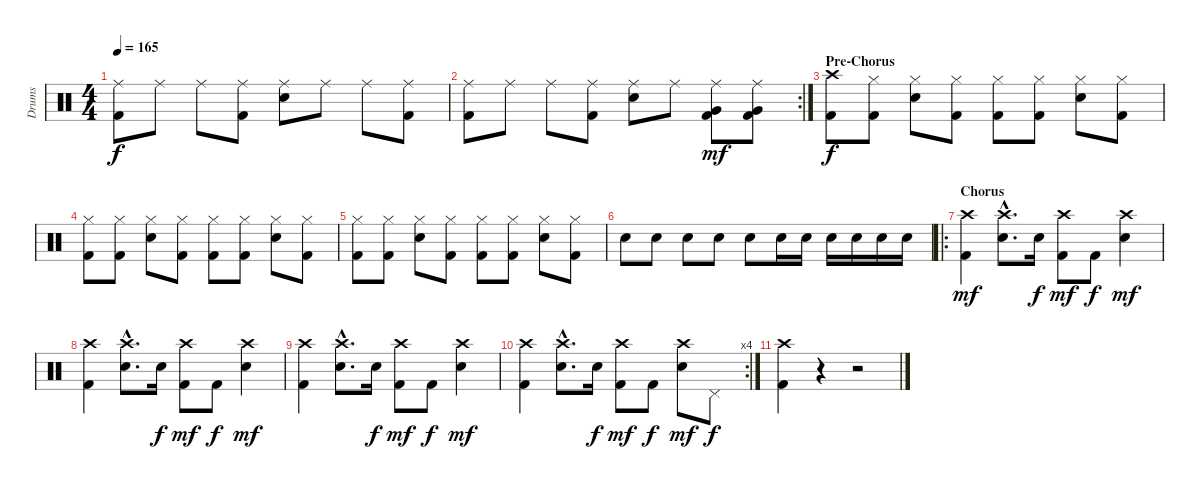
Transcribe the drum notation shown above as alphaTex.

\track ("Drums" "Drums") {instrument percussion}
\staff {score}
\articulation defaults
\ts (4 4)
\tempo 165
\clef neutral
\ks c
("Ride (middle)" "Kick (hit) 2").8{dy f} "Ride (middle)".8 "Ride (middle)".8 ("Ride (middle)" "Kick (hit) 2").8 ("Ride (middle)" "Electric Snare (hit)").8 "Ride (middle)".8 "Ride (middle)".8 ("Ride (middle)" "Kick (hit) 2").8 |
\rc 2
("Ride (middle)" "Kick (hit) 2").8 "Ride (middle)".8 "Ride (middle)".8 ("Ride (middle)" "Kick (hit) 2").8 ("Ride (middle)" "Electric Snare (hit)").8 "Ride (middle)".8 ("Ride (middle)" "Very Low Tom (hit)" "Kick (hit) 2").8{dy mf} ("Ride (middle)" "Very Low Tom (hit)" "Kick (hit) 2").8 |
\section ("" "Pre-Chorus")
("Crash high (hit)" "Kick (hit) 2").8{dy f} ("Hi-Hat (closed)" "Kick (hit) 2").8 ("Hi-Hat (closed)" "Electric Snare (hit)").8 ("Hi-Hat (closed)" "Kick (hit) 2").8 ("Hi-Hat (closed)" "Kick (hit) 2").8 ("Hi-Hat (closed)" "Kick (hit) 2").8 ("Hi-Hat (closed)" "Electric Snare (hit)").8 ("Hi-Hat (closed)" "Kick (hit) 2").8 |
("Hi-Hat (closed)" "Kick (hit) 2").8 ("Hi-Hat (closed)" "Kick (hit) 2").8 ("Hi-Hat (closed)" "Electric Snare (hit)").8 ("Hi-Hat (closed)" "Kick (hit) 2").8 ("Hi-Hat (closed)" "Kick (hit) 2").8 ("Hi-Hat (closed)" "Kick (hit) 2").8 ("Hi-Hat (closed)" "Electric Snare (hit)").8 ("Hi-Hat (closed)" "Kick (hit) 2").8 |
("Hi-Hat (closed)" "Kick (hit) 2").8 ("Hi-Hat (closed)" "Kick (hit) 2").8 ("Hi-Hat (closed)" "Electric Snare (hit)").8 ("Hi-Hat (closed)" "Kick (hit) 2").8 ("Hi-Hat (closed)" "Kick (hit) 2").8 ("Hi-Hat (closed)" "Kick (hit) 2").8 ("Hi-Hat (closed)" "Electric Snare (hit)").8 ("Hi-Hat (closed)" "Kick (hit) 2").8 |
"Electric Snare (hit)".8 "Electric Snare (hit)".8 "Electric Snare (hit)".8 "Electric Snare (hit)".8 "Electric Snare (hit)".8 "Electric Snare (hit)".16 "Electric Snare (hit)".16 "Electric Snare (hit)".16 "Electric Snare (hit)".16 "Electric Snare (hit)".16 "Electric Snare (hit)".16 |
\ro
\section ("" "Chorus")
("Crash high (hit)" "Kick (hit) 2").4{dy mf} ("Crash high (hit)"{hac} "Electric Snare (hit)"{hac}).8{d} "Electric Snare (hit)".16{dy f} ("Crash high (hit)" "Kick (hit) 2").8{dy mf} "Kick (hit) 2".8{dy f} ("Crash high (hit)" "Electric Snare (hit)").4{dy mf} |
("Crash high (hit)" "Kick (hit) 2").4 ("Crash high (hit)"{hac} "Electric Snare (hit)"{hac}).8{d} "Electric Snare (hit)".16{dy f} ("Crash high (hit)" "Kick (hit) 2").8{dy mf} "Kick (hit) 2".8{dy f} ("Crash high (hit)" "Electric Snare (hit)").4{dy mf} |
("Crash high (hit)" "Kick (hit) 2").4 ("Crash high (hit)"{hac} "Electric Snare (hit)"{hac}).8{d} "Electric Snare (hit)".16{dy f} ("Crash high (hit)" "Kick (hit) 2").8{dy mf} "Kick (hit) 2".8{dy f} ("Crash high (hit)" "Electric Snare (hit)").4{dy mf} |
\rc 4
("Crash high (hit)" "Kick (hit) 2").4 ("Crash high (hit)"{hac} "Electric Snare (hit)"{hac}).8{d} "Electric Snare (hit)".16{dy f} ("Crash high (hit)" "Kick (hit) 2").8{dy mf} "Kick (hit) 2".8{dy f} ("Crash high (hit)" "Electric Snare (hit)").8{dy mf} "Pedal Hi-Hat (hit)".8{dy f} |
("Crash high (hit)" "Kick (hit) 2").4 r.4 r.2
